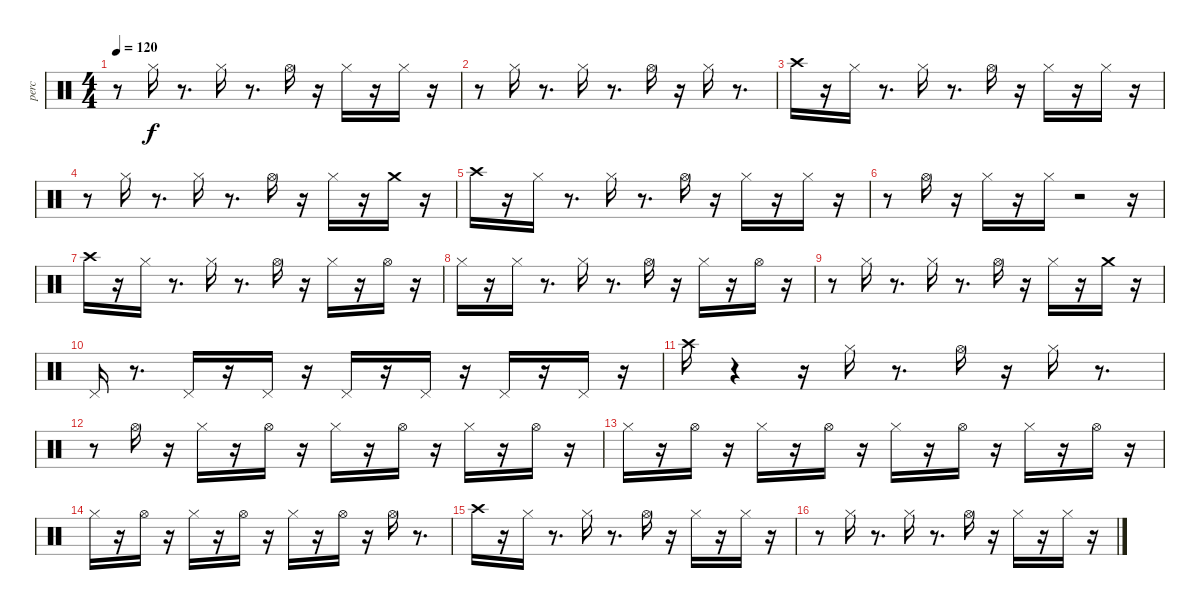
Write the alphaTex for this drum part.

\track ("perc" "perc") {instrument percussion}
\staff {score}
\articulation defaults
\ts (4 4)
\tempo 120
\clef neutral
\ks c
r.8{dy f} "Hi-Hat (closed)".16 r.8{d} "Hi-Hat (closed)".16 r.8{d} "Hi-Hat (open)".16 r.16 "Hi-Hat (closed)".16 r.16 "Hi-Hat (closed)".16 r.16 |
r.8 "Hi-Hat (closed)".16 r.8{d} "Hi-Hat (closed)".16 r.8{d} "Hi-Hat (open)".16 r.16 "Hi-Hat (closed)".16 r.8{d} |
"Crash high (hit)".16 r.16 "Hi-Hat (closed)".16 r.8{d} "Hi-Hat (closed)".16 r.8{d} "Hi-Hat (open)".16 r.16 "Hi-Hat (closed)".16 r.16 "Hi-Hat (closed)".16 r.16 |
r.8 "Hi-Hat (closed)".16 r.8{d} "Hi-Hat (closed)".16 r.8{d} "Hi-Hat (open)".16 r.16 "Hi-Hat (closed)".16 r.16 "Crash medium (hit)".16 r.16 |
"Crash high (hit)".16 r.16 "Hi-Hat (closed)".16 r.8{d} "Hi-Hat (closed)".16 r.8{d} "Hi-Hat (open)".16 r.16 "Hi-Hat (closed)".16 r.16 "Hi-Hat (closed)".16 r.16 |
r.8 "Hi-Hat (open)".16 r.16 "Hi-Hat (closed)".16 r.16 "Hi-Hat (closed)".16 r.2 r.16 |
"Crash high (hit)".16 r.16 "Hi-Hat (closed)".16 r.8{d} "Hi-Hat (closed)".16 r.8{d} "Hi-Hat (open)".16 r.16 "Hi-Hat (closed)".16 r.16 "Hi-Hat (open)".16 r.16 |
"Hi-Hat (closed)".16 r.16 "Hi-Hat (closed)".16 r.8{d} "Hi-Hat (closed)".16 r.8{d} "Hi-Hat (open)".16 r.16 "Hi-Hat (closed)".16 r.16 "Hi-Hat (open)".16 r.16 |
r.8 "Hi-Hat (closed)".16 r.8{d} "Hi-Hat (closed)".16 r.8{d} "Hi-Hat (open)".16 r.16 "Hi-Hat (closed)".16 r.16 "Crash medium (hit)".16 r.16 |
"Pedal Hi-Hat (hit)".16 r.8{d} "Pedal Hi-Hat (hit)".16 r.16 "Pedal Hi-Hat (hit)".16 r.16 "Pedal Hi-Hat (hit)".16 r.16 "Pedal Hi-Hat (hit)".16 r.16 "Pedal Hi-Hat (hit)".16 r.16 "Pedal Hi-Hat (hit)".16 r.16 |
"Crash high (hit)".16 r.4 r.16 "Hi-Hat (closed)".16 r.8{d} "Hi-Hat (open)".16 r.16 "Hi-Hat (closed)".16 r.8{d} |
r.8 "Hi-Hat (open)".16 r.16 "Hi-Hat (closed)".16 r.16 "Hi-Hat (open)".16 r.16 "Hi-Hat (closed)".16 r.16 "Hi-Hat (open)".16 r.16 "Hi-Hat (closed)".16 r.16 "Hi-Hat (open)".16 r.16 |
"Hi-Hat (closed)".16 r.16 "Hi-Hat (open)".16 r.16 "Hi-Hat (closed)".16 r.16 "Hi-Hat (open)".16 r.16 "Hi-Hat (closed)".16 r.16 "Hi-Hat (open)".16 r.16 "Hi-Hat (closed)".16 r.16 "Hi-Hat (open)".16 r.16 |
"Hi-Hat (closed)".16 r.16 "Hi-Hat (open)".16 r.16 "Hi-Hat (closed)".16 r.16 "Hi-Hat (open)".16 r.16 "Hi-Hat (closed)".16 r.16 "Hi-Hat (open)".16 r.16 "Hi-Hat (open)".16 r.8{d} |
"Crash high (hit)".16 r.16 "Hi-Hat (closed)".16 r.8{d} "Hi-Hat (closed)".16 r.8{d} "Hi-Hat (open)".16 r.16 "Hi-Hat (closed)".16 r.16 "Hi-Hat (closed)".16 r.16 |
r.8 "Hi-Hat (closed)".16 r.8{d} "Hi-Hat (closed)".16 r.8{d} "Hi-Hat (open)".16 r.16 "Hi-Hat (closed)".16 r.16 "Hi-Hat (closed)".16 r.16
